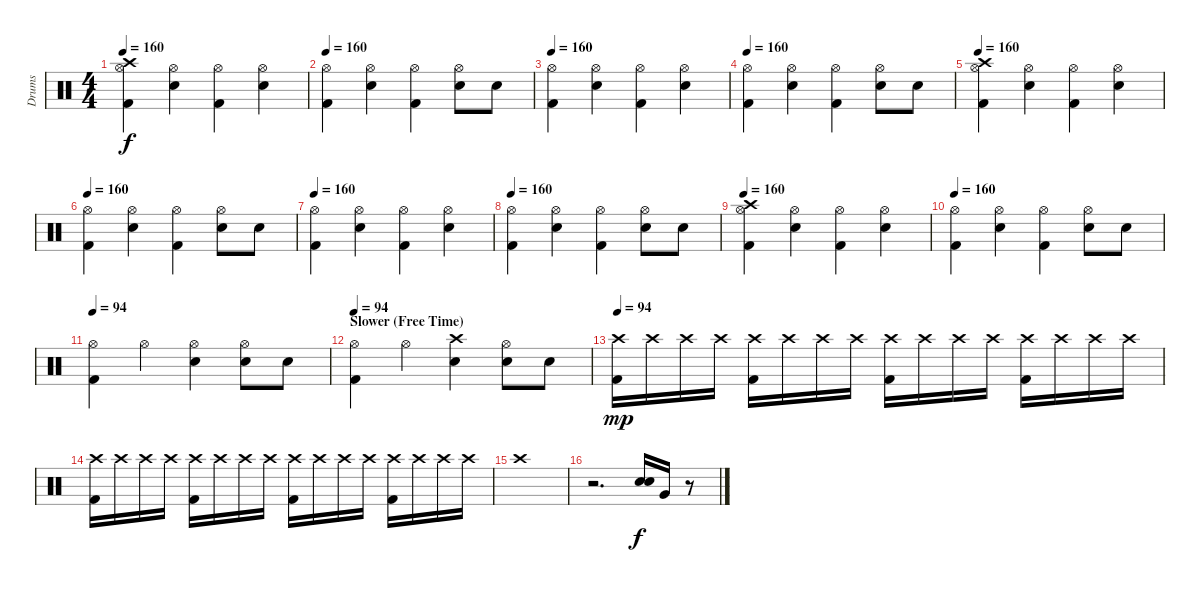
\track ("Drums" "Drums") {instrument percussion}
\staff {score}
\articulation defaults
\ts (4 4)
\tempo 160
\clef neutral
\ks c
("Crash high (hit)" "Hi-Hat (open)" "Kick (hit) 2").4{dy f} ("Hi-Hat (open)" "Snare (hit) 2").4 ("Hi-Hat (open)" "Kick (hit) 2").4 ("Hi-Hat (open)" "Snare (hit) 2").4 |
\tempo 160
("Hi-Hat (open)" "Kick (hit) 2").4 ("Hi-Hat (open)" "Snare (hit) 2").4 ("Hi-Hat (open)" "Kick (hit) 2").4 ("Hi-Hat (open)" "Snare (hit) 2").8 "Snare (hit) 2".8 |
\tempo 160
("Hi-Hat (open)" "Kick (hit) 2").4 ("Hi-Hat (open)" "Snare (hit) 2").4 ("Hi-Hat (open)" "Kick (hit) 2").4 ("Hi-Hat (open)" "Snare (hit) 2").4 |
\tempo 160
("Hi-Hat (open)" "Kick (hit) 2").4 ("Hi-Hat (open)" "Snare (hit) 2").4 ("Hi-Hat (open)" "Kick (hit) 2").4 ("Hi-Hat (open)" "Snare (hit) 2").8 "Snare (hit) 2".8 |
\tempo 160
("Crash high (hit)" "Hi-Hat (open)" "Kick (hit) 2").4 ("Hi-Hat (open)" "Snare (hit) 2").4 ("Hi-Hat (open)" "Kick (hit) 2").4 ("Hi-Hat (open)" "Snare (hit) 2").4 |
\tempo 160
("Hi-Hat (open)" "Kick (hit) 2").4 ("Hi-Hat (open)" "Snare (hit) 2").4 ("Hi-Hat (open)" "Kick (hit) 2").4 ("Hi-Hat (open)" "Snare (hit) 2").8 "Snare (hit) 2".8 |
\tempo 160
("Hi-Hat (open)" "Kick (hit) 2").4 ("Hi-Hat (open)" "Snare (hit) 2").4 ("Hi-Hat (open)" "Kick (hit) 2").4 ("Hi-Hat (open)" "Snare (hit) 2").4 |
\tempo 160
("Hi-Hat (open)" "Kick (hit) 2").4 ("Hi-Hat (open)" "Snare (hit) 2").4 ("Hi-Hat (open)" "Kick (hit) 2").4 ("Hi-Hat (open)" "Snare (hit) 2").8 "Snare (hit) 2".8 |
\tempo 160
("Crash high (hit)" "Hi-Hat (open)" "Kick (hit) 2").4 ("Hi-Hat (open)" "Snare (hit) 2").4 ("Hi-Hat (open)" "Kick (hit) 2").4 ("Hi-Hat (open)" "Snare (hit) 2").4 |
\tempo 160
("Hi-Hat (open)" "Kick (hit) 2").4 ("Hi-Hat (open)" "Snare (hit) 2").4 ("Hi-Hat (open)" "Kick (hit) 2").4 ("Hi-Hat (open)" "Snare (hit) 2").8 "Snare (hit) 2".8 |
\tempo 94
("Hi-Hat (open)" "Kick (hit) 2").4 "Hi-Hat (open)".4 ("Hi-Hat (open)" "Snare (hit) 2").4 ("Hi-Hat (open)" "Snare (hit) 2").8 "Snare (hit) 2".8 |
\section ("" "Slower (Free Time)")
\tempo 94
("Hi-Hat (open)" "Kick (hit) 2").4 "Hi-Hat (open)".4 ("Crash high (hit)" "Snare (hit) 2").4 ("Hi-Hat (open)" "Snare (hit) 2").8 "Snare (hit) 2".8 |
\tempo 94
("Crash high (hit)" "Kick (hit) 2").16{dy mp volume 0} "Crash high (hit)".16 "Crash high (hit)".16 "Crash high (hit)".16 ("Crash high (hit)" "Kick (hit) 2").16 "Crash high (hit)".16 "Crash high (hit)".16 "Crash high (hit)".16 ("Crash high (hit)" "Kick (hit) 2").16 "Crash high (hit)".16 "Crash high (hit)".16 "Crash high (hit)".16 ("Crash high (hit)" "Kick (hit) 2").16 "Crash high (hit)".16 "Crash high (hit)".16 "Crash high (hit)".16 |
("Crash high (hit)" "Kick (hit) 2").16 "Crash high (hit)".16 "Crash high (hit)".16 "Crash high (hit)".16 ("Crash high (hit)" "Kick (hit) 2").16 "Crash high (hit)".16 "Crash high (hit)".16 "Crash high (hit)".16 ("Crash high (hit)" "Kick (hit) 2").16 "Crash high (hit)".16 "Crash high (hit)".16 "Crash high (hit)".16 ("Crash high (hit)" "Kick (hit) 2").16 "Crash high (hit)".16 "Crash high (hit)".16 "Crash high (hit)".16 |
"Crash high (hit)".1 |
r.2{d} ("Snare (hit) 2" "Snare (hit) 2").16{bd 120 dy f} "Very Low Tom (hit)".16 r.8
